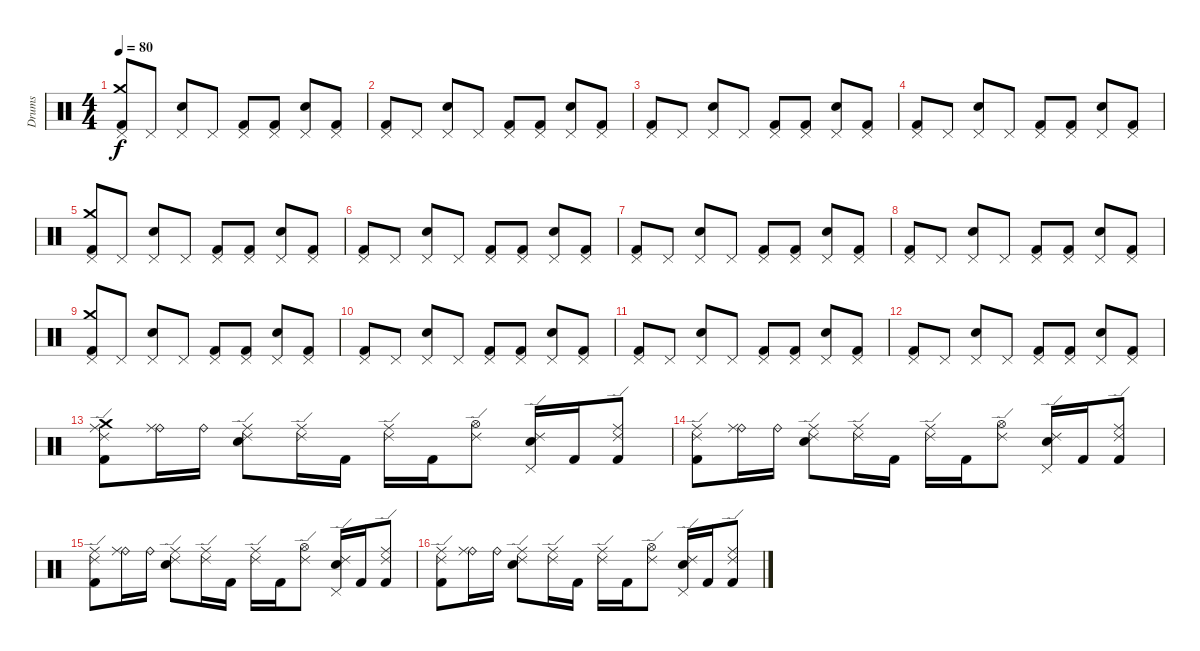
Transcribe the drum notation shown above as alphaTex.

\track ("Drums" "Drums") {instrument percussion}
\staff {score}
\articulation defaults
\ts (4 4)
\tempo 80
\clef neutral
\ks c
("Pedal Hi-Hat (hit)" "Crash medium (hit)" "Kick (hit) 2").8{dy f} "Pedal Hi-Hat (hit)".8 ("Pedal Hi-Hat (hit)" "Electric Snare (hit)").8 "Pedal Hi-Hat (hit)".8 ("Pedal Hi-Hat (hit)" "Kick (hit) 2").8 ("Pedal Hi-Hat (hit)" "Kick (hit) 2").8 ("Pedal Hi-Hat (hit)" "Electric Snare (hit)").8 ("Pedal Hi-Hat (hit)" "Kick (hit) 2").8 |
("Pedal Hi-Hat (hit)" "Kick (hit) 2").8 "Pedal Hi-Hat (hit)".8 ("Pedal Hi-Hat (hit)" "Electric Snare (hit)").8 "Pedal Hi-Hat (hit)".8 ("Pedal Hi-Hat (hit)" "Kick (hit) 2").8 ("Pedal Hi-Hat (hit)" "Kick (hit) 2").8 ("Pedal Hi-Hat (hit)" "Electric Snare (hit)").8 ("Pedal Hi-Hat (hit)" "Kick (hit) 2").8 |
("Pedal Hi-Hat (hit)" "Kick (hit) 2").8 "Pedal Hi-Hat (hit)".8 ("Pedal Hi-Hat (hit)" "Electric Snare (hit)").8 "Pedal Hi-Hat (hit)".8 ("Pedal Hi-Hat (hit)" "Kick (hit) 2").8 ("Pedal Hi-Hat (hit)" "Kick (hit) 2").8 ("Pedal Hi-Hat (hit)" "Electric Snare (hit)").8 ("Pedal Hi-Hat (hit)" "Kick (hit) 2").8 |
("Pedal Hi-Hat (hit)" "Kick (hit) 2").8 "Pedal Hi-Hat (hit)".8 ("Pedal Hi-Hat (hit)" "Electric Snare (hit)").8 "Pedal Hi-Hat (hit)".8 ("Pedal Hi-Hat (hit)" "Kick (hit) 2").8 ("Pedal Hi-Hat (hit)" "Kick (hit) 2").8 ("Pedal Hi-Hat (hit)" "Electric Snare (hit)").8 ("Pedal Hi-Hat (hit)" "Kick (hit) 2").8 |
("Pedal Hi-Hat (hit)" "Crash medium (hit)" "Kick (hit) 2").8 "Pedal Hi-Hat (hit)".8 ("Pedal Hi-Hat (hit)" "Electric Snare (hit)").8 "Pedal Hi-Hat (hit)".8 ("Pedal Hi-Hat (hit)" "Kick (hit) 2").8 ("Pedal Hi-Hat (hit)" "Kick (hit) 2").8 ("Pedal Hi-Hat (hit)" "Electric Snare (hit)").8 ("Pedal Hi-Hat (hit)" "Kick (hit) 2").8 |
("Pedal Hi-Hat (hit)" "Kick (hit) 2").8 "Pedal Hi-Hat (hit)".8 ("Pedal Hi-Hat (hit)" "Electric Snare (hit)").8 "Pedal Hi-Hat (hit)".8 ("Pedal Hi-Hat (hit)" "Kick (hit) 2").8 ("Pedal Hi-Hat (hit)" "Kick (hit) 2").8 ("Pedal Hi-Hat (hit)" "Electric Snare (hit)").8 ("Pedal Hi-Hat (hit)" "Kick (hit) 2").8 |
("Pedal Hi-Hat (hit)" "Kick (hit) 2").8 "Pedal Hi-Hat (hit)".8 ("Pedal Hi-Hat (hit)" "Electric Snare (hit)").8 "Pedal Hi-Hat (hit)".8 ("Pedal Hi-Hat (hit)" "Kick (hit) 2").8 ("Pedal Hi-Hat (hit)" "Kick (hit) 2").8 ("Pedal Hi-Hat (hit)" "Electric Snare (hit)").8 ("Pedal Hi-Hat (hit)" "Kick (hit) 2").8 |
("Pedal Hi-Hat (hit)" "Kick (hit) 2").8 "Pedal Hi-Hat (hit)".8 ("Pedal Hi-Hat (hit)" "Electric Snare (hit)").8 "Pedal Hi-Hat (hit)".8 ("Pedal Hi-Hat (hit)" "Kick (hit) 2").8 ("Pedal Hi-Hat (hit)" "Kick (hit) 2").8 ("Pedal Hi-Hat (hit)" "Electric Snare (hit)").8 ("Pedal Hi-Hat (hit)" "Kick (hit) 2").8 |
("Pedal Hi-Hat (hit)" "Crash medium (hit)" "Kick (hit) 2").8 "Pedal Hi-Hat (hit)".8 ("Pedal Hi-Hat (hit)" "Electric Snare (hit)").8 "Pedal Hi-Hat (hit)".8 ("Pedal Hi-Hat (hit)" "Kick (hit) 2").8 ("Pedal Hi-Hat (hit)" "Kick (hit) 2").8 ("Pedal Hi-Hat (hit)" "Electric Snare (hit)").8 ("Pedal Hi-Hat (hit)" "Kick (hit) 2").8 |
("Pedal Hi-Hat (hit)" "Kick (hit) 2").8 "Pedal Hi-Hat (hit)".8 ("Pedal Hi-Hat (hit)" "Electric Snare (hit)").8 "Pedal Hi-Hat (hit)".8 ("Pedal Hi-Hat (hit)" "Kick (hit) 2").8 ("Pedal Hi-Hat (hit)" "Kick (hit) 2").8 ("Pedal Hi-Hat (hit)" "Electric Snare (hit)").8 ("Pedal Hi-Hat (hit)" "Kick (hit) 2").8 |
("Pedal Hi-Hat (hit)" "Kick (hit) 2").8 "Pedal Hi-Hat (hit)".8 ("Pedal Hi-Hat (hit)" "Electric Snare (hit)").8 "Pedal Hi-Hat (hit)".8 ("Pedal Hi-Hat (hit)" "Kick (hit) 2").8 ("Pedal Hi-Hat (hit)" "Kick (hit) 2").8 ("Pedal Hi-Hat (hit)" "Electric Snare (hit)").8 ("Pedal Hi-Hat (hit)" "Kick (hit) 2").8 |
("Pedal Hi-Hat (hit)" "Kick (hit) 2").8 "Pedal Hi-Hat (hit)".8 ("Pedal Hi-Hat (hit)" "Electric Snare (hit)").8 "Pedal Hi-Hat (hit)".8 ("Pedal Hi-Hat (hit)" "Kick (hit) 2").8 ("Pedal Hi-Hat (hit)" "Kick (hit) 2").8 ("Pedal Hi-Hat (hit)" "Electric Snare (hit)").8 ("Pedal Hi-Hat (hit)" "Kick (hit) 2").8 |
("Ride (edge) 2" "Ride (middle)" "Crash medium (hit)" "Kick (hit) 2").8 ("Ride (bell)" "Ride (middle)").16 "Ride (bell)".16 ("Ride (middle)" "Ride (edge) 2" "Snare (hit) 2").8 ("Ride (edge) 2" "Ride (middle)").16 "Kick (hit) 2".16 ("Ride (edge) 2" "Ride (middle)").16 "Kick (hit) 2".16 ("Ride (edge) 2" "Hi-Hat (open)").8 ("Ride (edge) 2" "Pedal Hi-Hat (hit)" "Snare (hit) 2").16 "Kick (hit) 2".16 ("Ride (edge) 2" "Ride (middle)" "Kick (hit) 2").8 |
("Ride (edge) 2" "Ride (middle)" "Kick (hit) 2").8 ("Ride (bell)" "Ride (middle)").16 "Ride (bell)".16 ("Ride (middle)" "Ride (edge) 2" "Snare (hit) 2").8 ("Ride (edge) 2" "Ride (middle)").16 "Kick (hit) 2".16 ("Ride (edge) 2" "Ride (middle)").16 "Kick (hit) 2".16 ("Ride (edge) 2" "Hi-Hat (open)").8 ("Ride (edge) 2" "Pedal Hi-Hat (hit)" "Snare (hit) 2").16 "Kick (hit) 2".16 ("Ride (edge) 2" "Ride (middle)" "Kick (hit) 2").8 |
("Ride (edge) 2" "Ride (middle)" "Kick (hit) 2").8 ("Ride (bell)" "Ride (middle)").16 "Ride (bell)".16 ("Ride (middle)" "Ride (edge) 2" "Snare (hit) 2").8 ("Ride (edge) 2" "Ride (middle)").16 "Kick (hit) 2".16 ("Ride (edge) 2" "Ride (middle)").16 "Kick (hit) 2".16 ("Ride (edge) 2" "Hi-Hat (open)").8 ("Ride (edge) 2" "Pedal Hi-Hat (hit)" "Snare (hit) 2").16 "Kick (hit) 2".16 ("Ride (edge) 2" "Ride (middle)" "Kick (hit) 2").8 |
("Ride (edge) 2" "Ride (middle)" "Kick (hit) 2").8 ("Ride (bell)" "Ride (middle)").16 "Ride (bell)".16 ("Ride (middle)" "Ride (edge) 2" "Snare (hit) 2").8 ("Ride (edge) 2" "Ride (middle)").16 "Kick (hit) 2".16 ("Ride (edge) 2" "Ride (middle)").16 "Kick (hit) 2".16 ("Ride (edge) 2" "Hi-Hat (open)").8 ("Ride (edge) 2" "Pedal Hi-Hat (hit)" "Snare (hit) 2").16 "Kick (hit) 2".16 ("Ride (edge) 2" "Ride (middle)" "Kick (hit) 2").8
